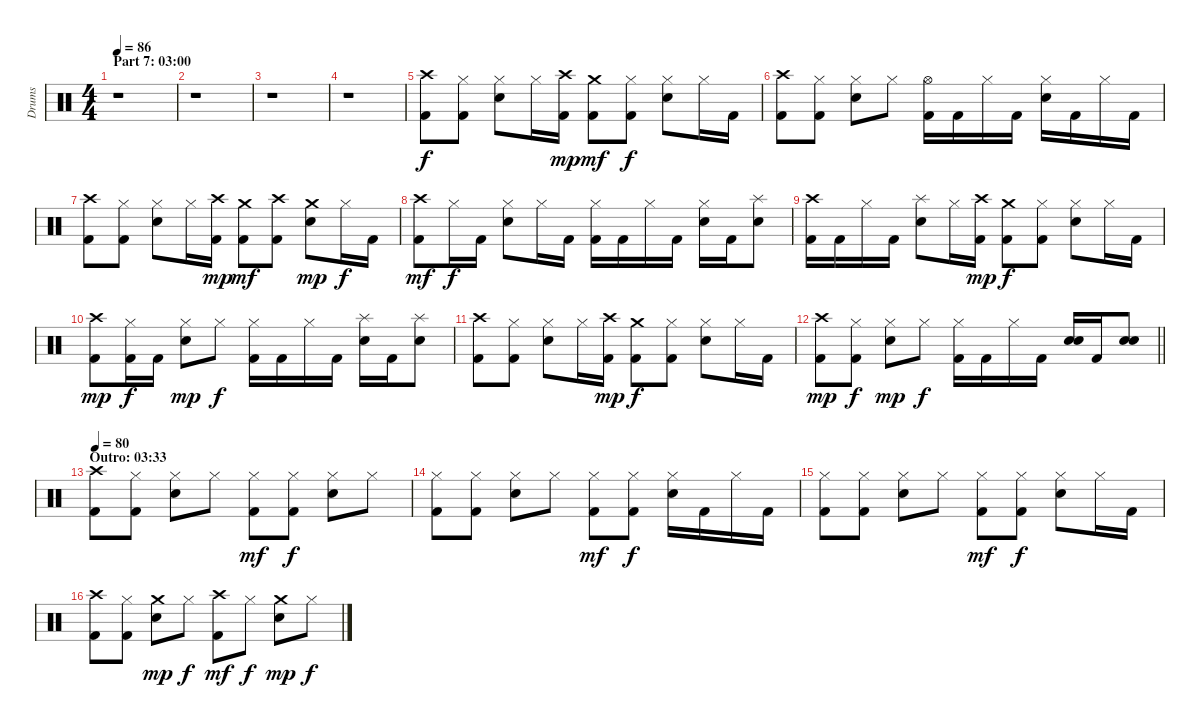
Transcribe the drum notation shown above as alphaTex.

\track ("Drums" "Drums") {instrument percussion}
\staff {score}
\articulation defaults
\ts (4 4)
\section ("" "Part 7: 03:00")
\tempo 86
\clef neutral
\ks c
r.1{dy f} |
r.1 |
r.1 |
r.1 |
("Crash high (hit)" "Kick (hit) 2").8 ("Hi-Hat (closed)" "Kick (hit) 2").8 ("Hi-Hat (closed)" "Electric Snare (hit)").8 "Hi-Hat (closed)".16 ("Crash high (hit)" "Kick (hit) 2").16{dy mp} ("Crash medium (hit)" "Kick (hit) 2").8{dy mf} ("Hi-Hat (closed)" "Kick (hit) 2").8{dy f} ("Hi-Hat (closed)" "Electric Snare (hit)").8 "Hi-Hat (closed)".16 "Kick (hit) 2".16 |
("Crash high (hit)" "Kick (hit) 2").8 ("Hi-Hat (closed)" "Kick (hit) 2").8 ("Hi-Hat (closed)" "Electric Snare (hit)").8 "Hi-Hat (closed)".8 ("Hi-Hat (open)" "Kick (hit) 2").16 "Kick (hit) 2".16 "Hi-Hat (closed)".16 "Kick (hit) 2".16 ("Hi-Hat (closed)" "Electric Snare (hit)").16 "Kick (hit) 2".16 "Hi-Hat (closed)".16 "Kick (hit) 2".16 |
("Crash high (hit)" "Kick (hit) 2").8 ("Hi-Hat (closed)" "Kick (hit) 2").8 ("Hi-Hat (closed)" "Electric Snare (hit)").8 "Hi-Hat (closed)".16 ("Crash high (hit)" "Kick (hit) 2").16{dy mp} ("Crash medium (hit)" "Kick (hit) 2").8{dy mf} ("Crash high (hit)" "Kick (hit) 2").8 ("Crash medium (hit)" "Electric Snare (hit)").8{dy mp} "Hi-Hat (closed)".16{dy f} "Kick (hit) 2".16 |
("Crash high (hit)" "Kick (hit) 2").8{dy mf} "Hi-Hat (closed)".16{dy f} "Kick (hit) 2".16 ("Hi-Hat (closed)" "Electric Snare (hit)").8 "Hi-Hat (closed)".16 "Kick (hit) 2".16 ("Hi-Hat (closed)" "Kick (hit) 2").16 "Kick (hit) 2".16 "Hi-Hat (closed)".16 "Kick (hit) 2".16 ("Hi-Hat (closed)" "Electric Snare (hit)").16 "Kick (hit) 2".16 ("Splash (hit)" "Electric Snare (hit)").8 |
("Crash high (hit)" "Kick (hit) 2").16 "Kick (hit) 2".16 "Hi-Hat (closed)".16 "Kick (hit) 2".16 ("Splash (hit)" "Electric Snare (hit)").8 "Hi-Hat (closed)".16 ("Crash high (hit)" "Kick (hit) 2").16{dy mp} ("Crash medium (hit)" "Kick (hit) 2").8{dy f} ("Hi-Hat (closed)" "Kick (hit) 2").8 ("Hi-Hat (closed)" "Electric Snare (hit)").8 "Hi-Hat (closed)".16 "Kick (hit) 2".16 |
("Crash high (hit)" "Kick (hit) 2").8{dy mp} ("Hi-Hat (closed)" "Kick (hit) 2").16{dy f} "Kick (hit) 2".16 ("Hi-Hat (closed)" "Electric Snare (hit)").8{dy mp} "Hi-Hat (closed)".8{dy f} ("Hi-Hat (closed)" "Kick (hit) 2").16 "Kick (hit) 2".16 "Hi-Hat (closed)".16 "Kick (hit) 2".16 ("Splash (hit)" "Electric Snare (hit)").16 "Kick (hit) 2".16 ("Splash (hit)" "Electric Snare (hit)").8 |
("Crash high (hit)" "Kick (hit) 2").8 ("Hi-Hat (closed)" "Kick (hit) 2").8 ("Hi-Hat (closed)" "Electric Snare (hit)").8 "Hi-Hat (closed)".16 ("Crash high (hit)" "Kick (hit) 2").16{dy mp} ("Crash medium (hit)" "Kick (hit) 2").8{dy f} ("Hi-Hat (closed)" "Kick (hit) 2").8 ("Hi-Hat (closed)" "Electric Snare (hit)").8 "Hi-Hat (closed)".16 "Kick (hit) 2".16 |
\barLineRight lightlight
("Crash high (hit)" "Kick (hit) 2").8{dy mp} ("Hi-Hat (closed)" "Kick (hit) 2").8{dy f} ("Hi-Hat (closed)" "Electric Snare (hit)").8{dy mp} "Hi-Hat (closed)".8{dy f} ("Hi-Hat (closed)" "Kick (hit) 2").16 "Kick (hit) 2".16 "Hi-Hat (closed)".16 "Kick (hit) 2".16 ("Electric Snare (hit)" "Electric Snare (hit)").16{bd 120} "Kick (hit) 2".16 ("Electric Snare (hit)" "Electric Snare (hit)").8{bd 120} |
\section ("" "Outro: 03:33")
\tempo 80
("Crash high (hit)" "Kick (hit) 2").8 ("Hi-Hat (closed)" "Kick (hit) 2").8 ("Hi-Hat (closed)" "Electric Snare (hit)").8 "Hi-Hat (closed)".8 ("Hi-Hat (closed)" "Kick (hit) 2").8{dy mf} ("Hi-Hat (closed)" "Kick (hit) 2").8{dy f} ("Hi-Hat (closed)" "Electric Snare (hit)").8 "Hi-Hat (closed)".8 |
("Hi-Hat (closed)" "Kick (hit) 2").8 ("Hi-Hat (closed)" "Kick (hit) 2").8 ("Hi-Hat (closed)" "Electric Snare (hit)").8 "Hi-Hat (closed)".8 ("Hi-Hat (closed)" "Kick (hit) 2").8{dy mf} ("Hi-Hat (closed)" "Kick (hit) 2").8{dy f} ("Hi-Hat (closed)" "Electric Snare (hit)").16 "Kick (hit) 2".16 "Hi-Hat (closed)".16 "Kick (hit) 2".16 |
("Hi-Hat (closed)" "Kick (hit) 2").8 ("Hi-Hat (closed)" "Kick (hit) 2").8 ("Hi-Hat (closed)" "Electric Snare (hit)").8 "Hi-Hat (closed)".8 ("Hi-Hat (closed)" "Kick (hit) 2").8{dy mf} ("Hi-Hat (closed)" "Kick (hit) 2").8{dy f} ("Hi-Hat (closed)" "Electric Snare (hit)").8 "Hi-Hat (closed)".16 "Kick (hit) 2".16 |
("Crash high (hit)" "Kick (hit) 2").8 ("Hi-Hat (closed)" "Kick (hit) 2").8 ("Crash medium (hit)" "Electric Snare (hit)").8{dy mp} "Hi-Hat (closed)".8{dy f} ("Crash high (hit)" "Kick (hit) 2").8{dy mf} "Hi-Hat (closed)".8{dy f} ("Crash medium (hit)" "Electric Snare (hit)").8{dy mp} "Hi-Hat (closed)".8{dy f}
